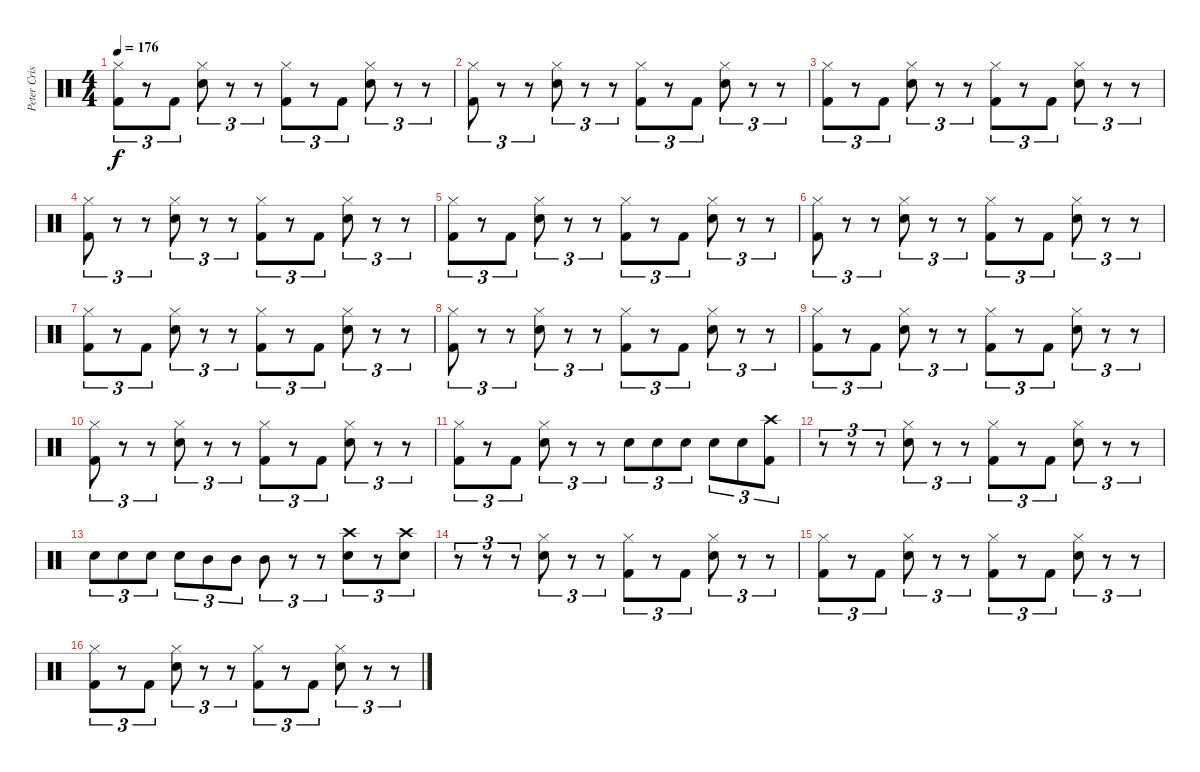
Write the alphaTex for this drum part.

\track ("Peter Criss" "Peter Cris") {instrument percussion}
\staff {score}
\articulation defaults
\ts (4 4)
\tempo 176
\clef neutral
\ks c
("Hi-Hat (closed)" "Kick (hit) 2").8{tu (3 2) dy f} r.8{tu (3 2)} "Kick (hit) 2".8{tu (3 2)} ("Hi-Hat (closed)" "Electric Snare (hit)").8{tu (3 2)} r.8{tu (3 2)} r.8{tu (3 2)} ("Hi-Hat (closed)" "Kick (hit) 2").8{tu (3 2)} r.8{tu (3 2)} "Kick (hit) 2".8{tu (3 2)} ("Hi-Hat (closed)" "Electric Snare (hit)").8{tu (3 2)} r.8{tu (3 2)} r.8{tu (3 2)} |
("Hi-Hat (closed)" "Kick (hit) 2").8{tu (3 2)} r.8{tu (3 2)} r.8{tu (3 2)} ("Hi-Hat (closed)" "Electric Snare (hit)").8{tu (3 2)} r.8{tu (3 2)} r.8{tu (3 2)} ("Hi-Hat (closed)" "Kick (hit) 2").8{tu (3 2)} r.8{tu (3 2)} "Kick (hit) 2".8{tu (3 2)} ("Hi-Hat (closed)" "Electric Snare (hit)").8{tu (3 2)} r.8{tu (3 2)} r.8{tu (3 2)} |
("Hi-Hat (closed)" "Kick (hit) 2").8{tu (3 2)} r.8{tu (3 2)} "Kick (hit) 2".8{tu (3 2)} ("Hi-Hat (closed)" "Electric Snare (hit)").8{tu (3 2)} r.8{tu (3 2)} r.8{tu (3 2)} ("Hi-Hat (closed)" "Kick (hit) 2").8{tu (3 2)} r.8{tu (3 2)} "Kick (hit) 2".8{tu (3 2)} ("Hi-Hat (closed)" "Electric Snare (hit)").8{tu (3 2)} r.8{tu (3 2)} r.8{tu (3 2)} |
("Hi-Hat (closed)" "Kick (hit) 2").8{tu (3 2)} r.8{tu (3 2)} r.8{tu (3 2)} ("Hi-Hat (closed)" "Electric Snare (hit)").8{tu (3 2)} r.8{tu (3 2)} r.8{tu (3 2)} ("Hi-Hat (closed)" "Kick (hit) 2").8{tu (3 2)} r.8{tu (3 2)} "Kick (hit) 2".8{tu (3 2)} ("Hi-Hat (closed)" "Electric Snare (hit)").8{tu (3 2)} r.8{tu (3 2)} r.8{tu (3 2)} |
("Hi-Hat (closed)" "Kick (hit) 2").8{tu (3 2)} r.8{tu (3 2)} "Kick (hit) 2".8{tu (3 2)} ("Hi-Hat (closed)" "Electric Snare (hit)").8{tu (3 2)} r.8{tu (3 2)} r.8{tu (3 2)} ("Hi-Hat (closed)" "Kick (hit) 2").8{tu (3 2)} r.8{tu (3 2)} "Kick (hit) 2".8{tu (3 2)} ("Hi-Hat (closed)" "Electric Snare (hit)").8{tu (3 2)} r.8{tu (3 2)} r.8{tu (3 2)} |
("Hi-Hat (closed)" "Kick (hit) 2").8{tu (3 2)} r.8{tu (3 2)} r.8{tu (3 2)} ("Hi-Hat (closed)" "Electric Snare (hit)").8{tu (3 2)} r.8{tu (3 2)} r.8{tu (3 2)} ("Hi-Hat (closed)" "Kick (hit) 2").8{tu (3 2)} r.8{tu (3 2)} "Kick (hit) 2".8{tu (3 2)} ("Hi-Hat (closed)" "Electric Snare (hit)").8{tu (3 2)} r.8{tu (3 2)} r.8{tu (3 2)} |
("Hi-Hat (closed)" "Kick (hit) 2").8{tu (3 2)} r.8{tu (3 2)} "Kick (hit) 2".8{tu (3 2)} ("Hi-Hat (closed)" "Electric Snare (hit)").8{tu (3 2)} r.8{tu (3 2)} r.8{tu (3 2)} ("Hi-Hat (closed)" "Kick (hit) 2").8{tu (3 2)} r.8{tu (3 2)} "Kick (hit) 2".8{tu (3 2)} ("Hi-Hat (closed)" "Electric Snare (hit)").8{tu (3 2)} r.8{tu (3 2)} r.8{tu (3 2)} |
("Hi-Hat (closed)" "Kick (hit) 2").8{tu (3 2)} r.8{tu (3 2)} r.8{tu (3 2)} ("Hi-Hat (closed)" "Electric Snare (hit)").8{tu (3 2)} r.8{tu (3 2)} r.8{tu (3 2)} ("Hi-Hat (closed)" "Kick (hit) 2").8{tu (3 2)} r.8{tu (3 2)} "Kick (hit) 2".8{tu (3 2)} ("Hi-Hat (closed)" "Electric Snare (hit)").8{tu (3 2)} r.8{tu (3 2)} r.8{tu (3 2)} |
("Hi-Hat (closed)" "Kick (hit) 2").8{tu (3 2)} r.8{tu (3 2)} "Kick (hit) 2".8{tu (3 2)} ("Hi-Hat (closed)" "Electric Snare (hit)").8{tu (3 2)} r.8{tu (3 2)} r.8{tu (3 2)} ("Hi-Hat (closed)" "Kick (hit) 2").8{tu (3 2)} r.8{tu (3 2)} "Kick (hit) 2".8{tu (3 2)} ("Hi-Hat (closed)" "Electric Snare (hit)").8{tu (3 2)} r.8{tu (3 2)} r.8{tu (3 2)} |
("Hi-Hat (closed)" "Kick (hit) 2").8{tu (3 2)} r.8{tu (3 2)} r.8{tu (3 2)} ("Hi-Hat (closed)" "Electric Snare (hit)").8{tu (3 2)} r.8{tu (3 2)} r.8{tu (3 2)} ("Hi-Hat (closed)" "Kick (hit) 2").8{tu (3 2)} r.8{tu (3 2)} "Kick (hit) 2".8{tu (3 2)} ("Hi-Hat (closed)" "Electric Snare (hit)").8{tu (3 2)} r.8{tu (3 2)} r.8{tu (3 2)} |
("Hi-Hat (closed)" "Kick (hit) 2").8{tu (3 2)} r.8{tu (3 2)} "Kick (hit) 2".8{tu (3 2)} ("Hi-Hat (closed)" "Electric Snare (hit)").8{tu (3 2)} r.8{tu (3 2)} r.8{tu (3 2)} "Electric Snare (hit)".8{tu (3 2)} "Electric Snare (hit)".8{tu (3 2)} "Electric Snare (hit)".8{tu (3 2)} "Electric Snare (hit)".8{tu (3 2)} "Electric Snare (hit)".8{tu (3 2)} ("Crash high (hit)" "Kick (hit) 2").8{tu (3 2)} |
r.8{tu (3 2)} r.8{tu (3 2)} r.8{tu (3 2)} ("Hi-Hat (closed)" "Electric Snare (hit)").8{tu (3 2)} r.8{tu (3 2)} r.8{tu (3 2)} ("Hi-Hat (closed)" "Kick (hit) 2").8{tu (3 2)} r.8{tu (3 2)} "Kick (hit) 2".8{tu (3 2)} ("Hi-Hat (closed)" "Electric Snare (hit)").8{tu (3 2)} r.8{tu (3 2)} r.8{tu (3 2)} |
"Electric Snare (hit)".8{tu (3 2)} "Electric Snare (hit)".8{tu (3 2)} "Electric Snare (hit)".8{tu (3 2)} "Electric Snare (hit)".8{tu (3 2)} "Mid Tom (hit)".8{tu (3 2)} "Mid Tom (hit)".8{tu (3 2)} "Mid Tom (hit)".8{tu (3 2)} r.8{tu (3 2)} r.8{tu (3 2)} ("Crash high (hit)" "Electric Snare (hit)").8{tu (3 2)} r.8{tu (3 2)} ("Crash high (hit)" "Electric Snare (hit)").8{tu (3 2)} |
r.8{tu (3 2)} r.8{tu (3 2)} r.8{tu (3 2)} ("Hi-Hat (closed)" "Electric Snare (hit)").8{tu (3 2)} r.8{tu (3 2)} r.8{tu (3 2)} ("Hi-Hat (closed)" "Kick (hit) 2").8{tu (3 2)} r.8{tu (3 2)} "Kick (hit) 2".8{tu (3 2)} ("Hi-Hat (closed)" "Electric Snare (hit)").8{tu (3 2)} r.8{tu (3 2)} r.8{tu (3 2)} |
("Hi-Hat (closed)" "Kick (hit) 2").8{tu (3 2)} r.8{tu (3 2)} "Kick (hit) 2".8{tu (3 2)} ("Hi-Hat (closed)" "Electric Snare (hit)").8{tu (3 2)} r.8{tu (3 2)} r.8{tu (3 2)} ("Hi-Hat (closed)" "Kick (hit) 2").8{tu (3 2)} r.8{tu (3 2)} "Kick (hit) 2".8{tu (3 2)} ("Hi-Hat (closed)" "Electric Snare (hit)").8{tu (3 2)} r.8{tu (3 2)} r.8{tu (3 2)} |
("Hi-Hat (closed)" "Kick (hit) 2").8{tu (3 2)} r.8{tu (3 2)} "Kick (hit) 2".8{tu (3 2)} ("Hi-Hat (closed)" "Electric Snare (hit)").8{tu (3 2)} r.8{tu (3 2)} r.8{tu (3 2)} ("Hi-Hat (closed)" "Kick (hit) 2").8{tu (3 2)} r.8{tu (3 2)} "Kick (hit) 2".8{tu (3 2)} ("Hi-Hat (closed)" "Electric Snare (hit)").8{tu (3 2)} r.8{tu (3 2)} r.8{tu (3 2)}
